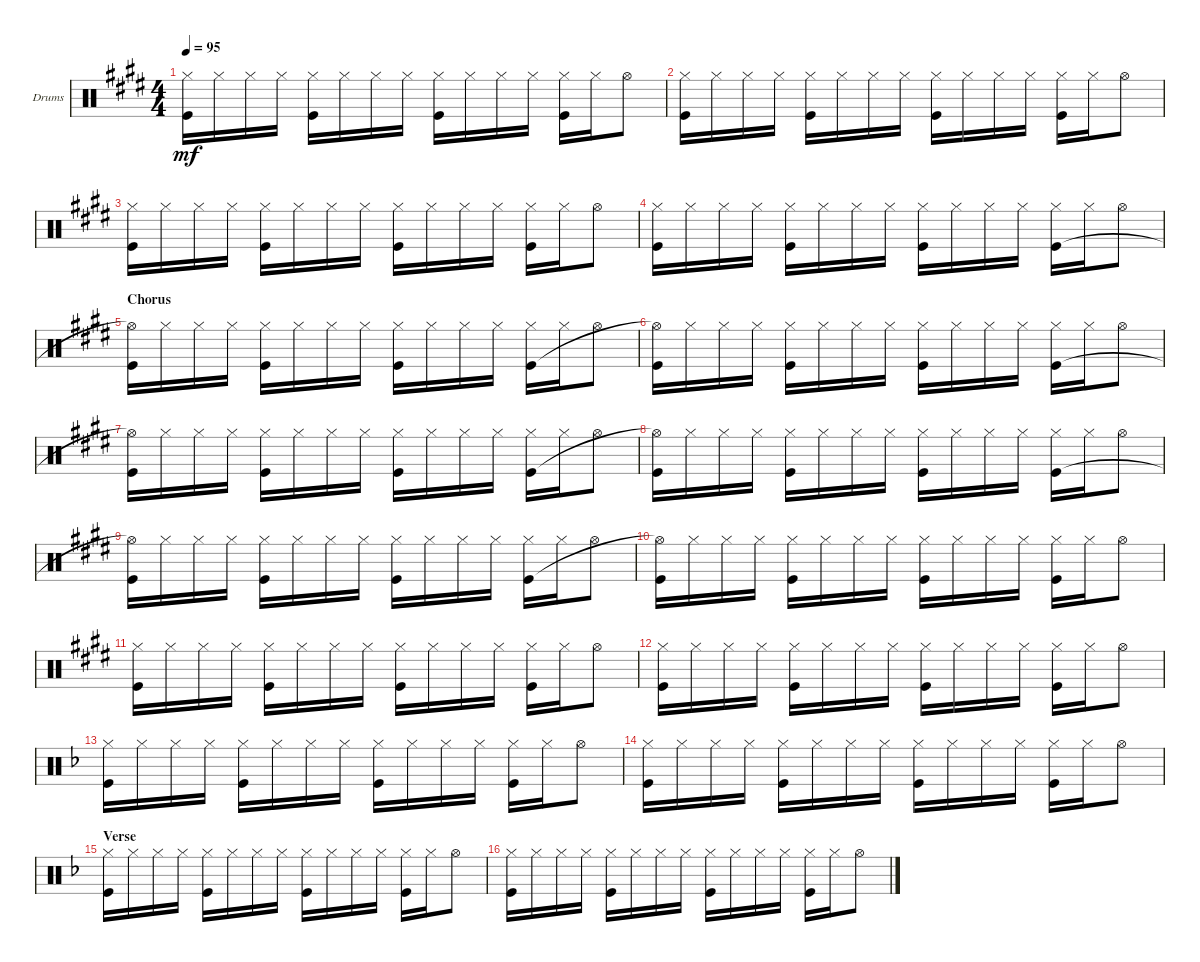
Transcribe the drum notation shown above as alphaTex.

\defaultSystemsLayout 4
\bracketExtendMode groupsimilarinstruments
\firstSystemTrackNameOrientation horizontal
\otherSystemsTrackNameOrientation horizontal
\track ("Drumkit" "Drums") {solo instrument percussion}
\staff {score}
\articulation defaults
\ts (4 4)
\tempo 95
\clef neutral
\ks e
("Kick (hit)" "Hi-Hat (closed)").16{dy mf} "Hi-Hat (closed)".16 "Hi-Hat (closed)".16 "Hi-Hat (closed)".16 ("Hi-Hat (closed)" "Kick (hit)").16 "Hi-Hat (closed)".16 "Hi-Hat (closed)".16 "Hi-Hat (closed)".16 ("Hi-Hat (closed)" "Kick (hit)").16 "Hi-Hat (closed)".16 "Hi-Hat (closed)".16 "Hi-Hat (closed)".16 ("Hi-Hat (closed)" "Kick (hit)").16 "Hi-Hat (closed)".16 "Hi-Hat (open)".8 |
("Kick (hit)" "Hi-Hat (closed)").16 "Hi-Hat (closed)".16 "Hi-Hat (closed)".16 "Hi-Hat (closed)".16 ("Hi-Hat (closed)" "Kick (hit)").16 "Hi-Hat (closed)".16 "Hi-Hat (closed)".16 "Hi-Hat (closed)".16 ("Hi-Hat (closed)" "Kick (hit)").16 "Hi-Hat (closed)".16 "Hi-Hat (closed)".16 "Hi-Hat (closed)".16 ("Hi-Hat (closed)" "Kick (hit)").16 "Hi-Hat (closed)".16 "Hi-Hat (open)".8 |
("Kick (hit)" "Hi-Hat (closed)").16 "Hi-Hat (closed)".16 "Hi-Hat (closed)".16 "Hi-Hat (closed)".16 ("Hi-Hat (closed)" "Kick (hit)").16 "Hi-Hat (closed)".16 "Hi-Hat (closed)".16 "Hi-Hat (closed)".16 ("Hi-Hat (closed)" "Kick (hit)").16 "Hi-Hat (closed)".16 "Hi-Hat (closed)".16 "Hi-Hat (closed)".16 ("Hi-Hat (closed)" "Kick (hit)").16 "Hi-Hat (closed)".16 "Hi-Hat (open)".8 |
("Kick (hit)" "Hi-Hat (closed)").16 "Hi-Hat (closed)".16 "Hi-Hat (closed)".16 "Hi-Hat (closed)".16 ("Hi-Hat (closed)" "Kick (hit)").16 "Hi-Hat (closed)".16 "Hi-Hat (closed)".16 "Hi-Hat (closed)".16 ("Hi-Hat (closed)" "Kick (hit)").16 "Hi-Hat (closed)".16 "Hi-Hat (closed)".16 "Hi-Hat (closed)".16 ("Hi-Hat (closed)" "Kick (hit)").16 "Hi-Hat (closed)".16 "Hi-Hat (open)".8 |
\section ("" "Chorus")
("Kick (hit)" "Hi-Hat (open)"{t}).16 "Hi-Hat (closed)".16 "Hi-Hat (closed)".16 "Hi-Hat (closed)".16 ("Hi-Hat (closed)" "Kick (hit)").16 "Hi-Hat (closed)".16 "Hi-Hat (closed)".16 "Hi-Hat (closed)".16 ("Hi-Hat (closed)" "Kick (hit)").16 "Hi-Hat (closed)".16 "Hi-Hat (closed)".16 "Hi-Hat (closed)".16 ("Hi-Hat (closed)" "Kick (hit)").16 "Hi-Hat (closed)".16 "Hi-Hat (open)".8 |
("Kick (hit)" "Hi-Hat (open)"{t}).16 "Hi-Hat (closed)".16 "Hi-Hat (closed)".16 "Hi-Hat (closed)".16 ("Hi-Hat (closed)" "Kick (hit)").16 "Hi-Hat (closed)".16 "Hi-Hat (closed)".16 "Hi-Hat (closed)".16 ("Hi-Hat (closed)" "Kick (hit)").16 "Hi-Hat (closed)".16 "Hi-Hat (closed)".16 "Hi-Hat (closed)".16 ("Hi-Hat (closed)" "Kick (hit)").16 "Hi-Hat (closed)".16 "Hi-Hat (open)".8 |
("Kick (hit)" "Hi-Hat (open)"{t}).16 "Hi-Hat (closed)".16 "Hi-Hat (closed)".16 "Hi-Hat (closed)".16 ("Hi-Hat (closed)" "Kick (hit)").16 "Hi-Hat (closed)".16 "Hi-Hat (closed)".16 "Hi-Hat (closed)".16 ("Hi-Hat (closed)" "Kick (hit)").16 "Hi-Hat (closed)".16 "Hi-Hat (closed)".16 "Hi-Hat (closed)".16 ("Hi-Hat (closed)" "Kick (hit)").16 "Hi-Hat (closed)".16 "Hi-Hat (open)".8 |
("Kick (hit)" "Hi-Hat (open)"{t}).16 "Hi-Hat (closed)".16 "Hi-Hat (closed)".16 "Hi-Hat (closed)".16 ("Hi-Hat (closed)" "Kick (hit)").16 "Hi-Hat (closed)".16 "Hi-Hat (closed)".16 "Hi-Hat (closed)".16 ("Hi-Hat (closed)" "Kick (hit)").16 "Hi-Hat (closed)".16 "Hi-Hat (closed)".16 "Hi-Hat (closed)".16 ("Hi-Hat (closed)" "Kick (hit)").16 "Hi-Hat (closed)".16 "Hi-Hat (open)".8 |
("Kick (hit)" "Hi-Hat (open)"{t}).16 "Hi-Hat (closed)".16 "Hi-Hat (closed)".16 "Hi-Hat (closed)".16 ("Hi-Hat (closed)" "Kick (hit)").16 "Hi-Hat (closed)".16 "Hi-Hat (closed)".16 "Hi-Hat (closed)".16 ("Hi-Hat (closed)" "Kick (hit)").16 "Hi-Hat (closed)".16 "Hi-Hat (closed)".16 "Hi-Hat (closed)".16 ("Hi-Hat (closed)" "Kick (hit)").16 "Hi-Hat (closed)".16 "Hi-Hat (open)".8 |
("Kick (hit)" "Hi-Hat (open)"{t}).16 "Hi-Hat (closed)".16 "Hi-Hat (closed)".16 "Hi-Hat (closed)".16 ("Hi-Hat (closed)" "Kick (hit)").16 "Hi-Hat (closed)".16 "Hi-Hat (closed)".16 "Hi-Hat (closed)".16 ("Hi-Hat (closed)" "Kick (hit)").16 "Hi-Hat (closed)".16 "Hi-Hat (closed)".16 "Hi-Hat (closed)".16 ("Hi-Hat (closed)" "Kick (hit)").16 "Hi-Hat (closed)".16 "Hi-Hat (open)".8 |
("Kick (hit)" "Hi-Hat (closed)").16 "Hi-Hat (closed)".16 "Hi-Hat (closed)".16 "Hi-Hat (closed)".16 ("Hi-Hat (closed)" "Kick (hit)").16 "Hi-Hat (closed)".16 "Hi-Hat (closed)".16 "Hi-Hat (closed)".16 ("Hi-Hat (closed)" "Kick (hit)").16 "Hi-Hat (closed)".16 "Hi-Hat (closed)".16 "Hi-Hat (closed)".16 ("Hi-Hat (closed)" "Kick (hit)").16 "Hi-Hat (closed)".16 "Hi-Hat (open)".8 |
("Kick (hit)" "Hi-Hat (closed)").16 "Hi-Hat (closed)".16 "Hi-Hat (closed)".16 "Hi-Hat (closed)".16 ("Hi-Hat (closed)" "Kick (hit)").16 "Hi-Hat (closed)".16 "Hi-Hat (closed)".16 "Hi-Hat (closed)".16 ("Hi-Hat (closed)" "Kick (hit)").16 "Hi-Hat (closed)".16 "Hi-Hat (closed)".16 "Hi-Hat (closed)".16 ("Hi-Hat (closed)" "Kick (hit)").16 "Hi-Hat (closed)".16 "Hi-Hat (open)".8 |
\ks f
("Kick (hit)" "Hi-Hat (closed)").16 "Hi-Hat (closed)".16 "Hi-Hat (closed)".16 "Hi-Hat (closed)".16 ("Hi-Hat (closed)" "Kick (hit)").16 "Hi-Hat (closed)".16 "Hi-Hat (closed)".16 "Hi-Hat (closed)".16 ("Hi-Hat (closed)" "Kick (hit)").16 "Hi-Hat (closed)".16 "Hi-Hat (closed)".16 "Hi-Hat (closed)".16 ("Hi-Hat (closed)" "Kick (hit)").16 "Hi-Hat (closed)".16 "Hi-Hat (open)".8 |
("Kick (hit)" "Hi-Hat (closed)").16 "Hi-Hat (closed)".16 "Hi-Hat (closed)".16 "Hi-Hat (closed)".16 ("Hi-Hat (closed)" "Kick (hit)").16 "Hi-Hat (closed)".16 "Hi-Hat (closed)".16 "Hi-Hat (closed)".16 ("Hi-Hat (closed)" "Kick (hit)").16 "Hi-Hat (closed)".16 "Hi-Hat (closed)".16 "Hi-Hat (closed)".16 ("Hi-Hat (closed)" "Kick (hit)").16 "Hi-Hat (closed)".16 "Hi-Hat (open)".8 |
\section ("" "Verse")
("Kick (hit)" "Hi-Hat (closed)").16 "Hi-Hat (closed)".16 "Hi-Hat (closed)".16 "Hi-Hat (closed)".16 ("Hi-Hat (closed)" "Kick (hit)").16 "Hi-Hat (closed)".16 "Hi-Hat (closed)".16 "Hi-Hat (closed)".16 ("Hi-Hat (closed)" "Kick (hit)").16 "Hi-Hat (closed)".16 "Hi-Hat (closed)".16 "Hi-Hat (closed)".16 ("Hi-Hat (closed)" "Kick (hit)").16 "Hi-Hat (closed)".16 "Hi-Hat (open)".8 |
("Kick (hit)" "Hi-Hat (closed)").16 "Hi-Hat (closed)".16 "Hi-Hat (closed)".16 "Hi-Hat (closed)".16 ("Hi-Hat (closed)" "Kick (hit)").16 "Hi-Hat (closed)".16 "Hi-Hat (closed)".16 "Hi-Hat (closed)".16 ("Hi-Hat (closed)" "Kick (hit)").16 "Hi-Hat (closed)".16 "Hi-Hat (closed)".16 "Hi-Hat (closed)".16 ("Hi-Hat (closed)" "Kick (hit)").16 "Hi-Hat (closed)".16 "Hi-Hat (open)".8
